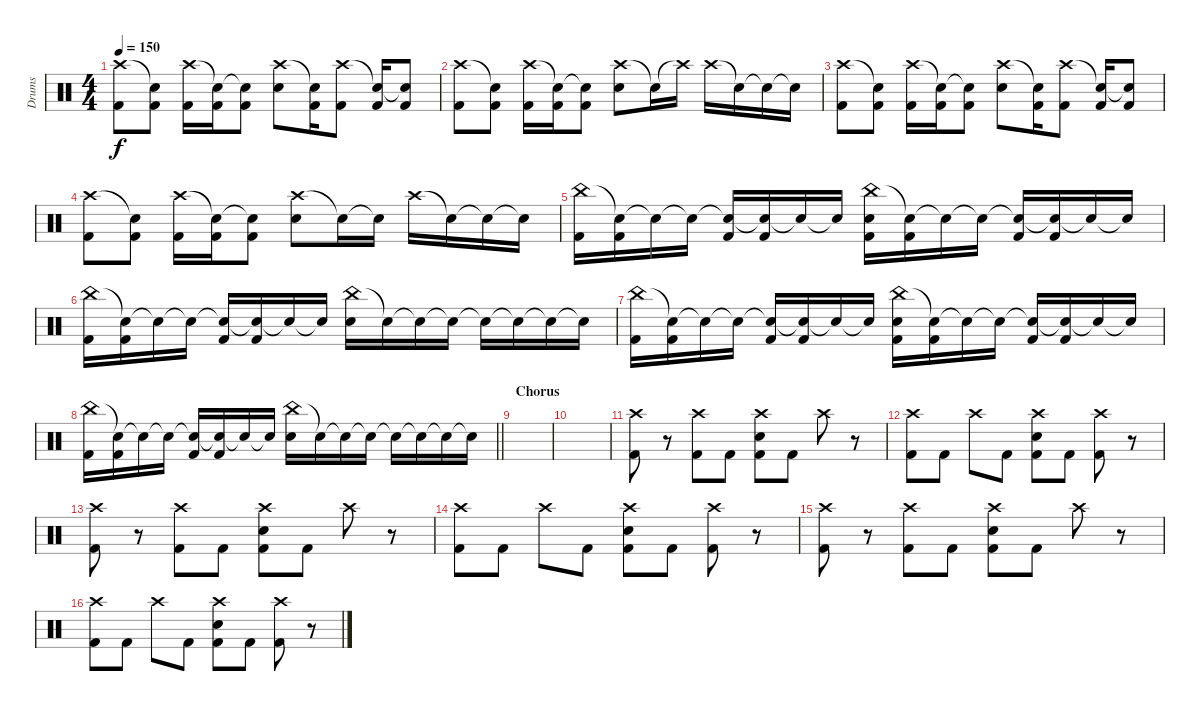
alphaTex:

\track ("Drums" "Drums") {instrument percussion}
\staff {score}
\articulation defaults
\ts (4 4)
\tempo 150
\clef neutral
\ks c
("Crash high (hit)" "Kick (hit) 2").8{dy f} ("Snare (hit)"{t} "Kick (hit) 2").8 ("Crash high (hit)" "Kick (hit) 2").16 ("Snare (hit)"{t} "Kick (hit) 2").16 ("Snare (hit)"{t} "Kick (hit) 2").8 ("Crash high (hit)" "Electric Snare (hit)").8 ("Snare (hit)"{t} "Kick (hit) 2").16 ("Crash high (hit)" "Kick (hit) 2").8 ("Snare (hit)"{t} "Kick (hit) 2").16 ("Snare (hit)"{t} "Kick (hit) 2").8 |
("Crash high (hit)" "Kick (hit) 2").8 ("Snare (hit)"{t} "Kick (hit) 2").8 ("Crash high (hit)" "Kick (hit) 2").16 ("Snare (hit)"{t} "Kick (hit) 2").16 ("Snare (hit)"{t} "Kick (hit) 2").8 ("Crash high (hit)" "Electric Snare (hit)").8 "Snare (hit)"{t}.16 "Crash high (hit)"{t}.16 "Crash high (hit)".16 "Snare (hit)"{t}.16 "Snare (hit)"{t}.16 "Snare (hit)"{t}.16 |
("Crash high (hit)" "Kick (hit) 2").8 ("Snare (hit)"{t} "Kick (hit) 2").8 ("Crash high (hit)" "Kick (hit) 2").16 ("Snare (hit)"{t} "Kick (hit) 2").16 ("Snare (hit)"{t} "Kick (hit) 2").8 ("Crash high (hit)" "Electric Snare (hit)").8 ("Snare (hit)"{t} "Kick (hit) 2").16 ("Crash high (hit)" "Kick (hit) 2").8 ("Snare (hit)"{t} "Kick (hit) 2").16 ("Snare (hit)"{t} "Kick (hit) 2").8 |
("Crash high (hit)" "Kick (hit) 2").8 ("Snare (hit)"{t} "Kick (hit) 2").8 ("Crash high (hit)" "Kick (hit) 2").16 ("Snare (hit)"{t} "Kick (hit) 2").16 ("Snare (hit)"{t} "Kick (hit) 2").8 ("Crash high (hit)" "Electric Snare (hit)").8 "Snare (hit)"{t}.16 "Snare (hit)"{t}.16 "Crash high (hit)".16 "Snare (hit)"{t}.16 "Snare (hit)"{t}.16 "Snare (hit)"{t}.16 |
("China (hit)" "Kick (hit) 2").16 ("Snare (hit)"{t} "Kick (hit) 2").16 "Snare (hit)"{t}.16 "Snare (hit)"{t}.16 ("Snare (hit)"{t} "Kick (hit) 2").16 ("Snare (hit)"{t} "Kick (hit) 2").16 "Snare (hit)"{t}.16 "Snare (hit)"{t}.16 ("China (hit)" "Electric Snare (hit)" "Kick (hit) 2").16 ("Snare (hit)"{t} "Kick (hit) 2").16 "Snare (hit)"{t}.16 "Snare (hit)"{t}.16 ("Snare (hit)"{t} "Kick (hit) 2").16 ("Snare (hit)"{t} "Kick (hit) 2").16 "Snare (hit)"{t}.16 "Snare (hit)"{t}.16 |
("China (hit)" "Kick (hit) 2").16 ("Snare (hit)"{t} "Kick (hit) 2").16 "Snare (hit)"{t}.16 "Snare (hit)"{t}.16 ("Snare (hit)"{t} "Kick (hit) 2").16 ("Snare (hit)"{t} "Kick (hit) 2").16 "Snare (hit)"{t}.16 "Snare (hit)"{t}.16 ("China (hit)" "Electric Snare (hit)").16 "Snare (hit)"{t}.16 "Snare (hit)"{t}.16 "Snare (hit)"{t}.16 "Snare (hit)"{t}.16 "Snare (hit)"{t}.16 "Snare (hit)"{t}.16 "Snare (hit)"{t}.16 |
("China (hit)" "Kick (hit) 2").16 ("Snare (hit)"{t} "Kick (hit) 2").16 "Snare (hit)"{t}.16 "Snare (hit)"{t}.16 ("Snare (hit)"{t} "Kick (hit) 2").16 ("Snare (hit)"{t} "Kick (hit) 2").16 "Snare (hit)"{t}.16 "Snare (hit)"{t}.16 ("China (hit)" "Electric Snare (hit)" "Kick (hit) 2").16 ("Snare (hit)"{t} "Kick (hit) 2").16 "Snare (hit)"{t}.16 "Snare (hit)"{t}.16 ("Snare (hit)"{t} "Kick (hit) 2").16 ("Snare (hit)"{t} "Kick (hit) 2").16 "Snare (hit)"{t}.16 "Snare (hit)"{t}.16 |
\barLineRight lightlight
("China (hit)" "Kick (hit) 2").16 ("Snare (hit)"{t} "Kick (hit) 2").16 "Snare (hit)"{t}.16 "Snare (hit)"{t}.16 ("Snare (hit)"{t} "Kick (hit) 2").16 ("Snare (hit)"{t} "Kick (hit) 2").16 "Snare (hit)"{t}.16 "Snare (hit)"{t}.16 ("China (hit)" "Electric Snare (hit)").16 "Snare (hit)"{t}.16 "Snare (hit)"{t}.16 "Snare (hit)"{t}.16 "Snare (hit)"{t}.16 "Snare (hit)"{t}.16 "Snare (hit)"{t}.16 "Snare (hit)"{t}.16 |
\section ("" "Chorus")
|
|
("Crash high (hit)" "Kick (hit) 2").8 r.8 ("Crash high (hit)" "Kick (hit) 2").8 "Kick (hit) 2".8 ("Crash high (hit)" "Electric Snare (hit)" "Kick (hit) 2").8 "Kick (hit) 2".8 "Crash high (hit)".8 r.8 |
("Crash high (hit)" "Kick (hit) 2").8 "Kick (hit) 2".8 "Crash high (hit)".8 "Kick (hit) 2".8 ("Crash high (hit)" "Electric Snare (hit)" "Kick (hit) 2").8 "Kick (hit) 2".8 ("Crash high (hit)" "Kick (hit) 2").8 r.8 |
("Crash high (hit)" "Kick (hit) 2").8 r.8 ("Crash high (hit)" "Kick (hit) 2").8 "Kick (hit) 2".8 ("Crash high (hit)" "Electric Snare (hit)" "Kick (hit) 2").8 "Kick (hit) 2".8 "Crash high (hit)".8 r.8 |
("Crash high (hit)" "Kick (hit) 2").8 "Kick (hit) 2".8 "Crash high (hit)".8 "Kick (hit) 2".8 ("Crash high (hit)" "Electric Snare (hit)" "Kick (hit) 2").8 "Kick (hit) 2".8 ("Crash high (hit)" "Kick (hit) 2").8 r.8 |
("Crash high (hit)" "Kick (hit) 2").8 r.8 ("Crash high (hit)" "Kick (hit) 2").8 "Kick (hit) 2".8 ("Crash high (hit)" "Electric Snare (hit)" "Kick (hit) 2").8 "Kick (hit) 2".8 "Crash high (hit)".8 r.8 |
("Crash high (hit)" "Kick (hit) 2").8 "Kick (hit) 2".8 "Crash high (hit)".8 "Kick (hit) 2".8 ("Crash high (hit)" "Electric Snare (hit)" "Kick (hit) 2").8 "Kick (hit) 2".8 ("Crash high (hit)" "Kick (hit) 2").8 r.8
